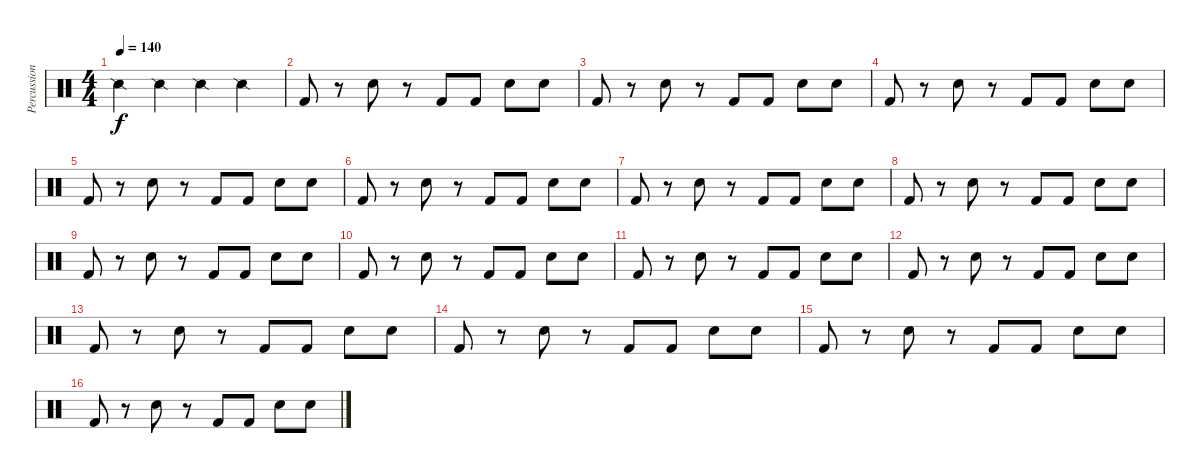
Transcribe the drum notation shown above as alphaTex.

\track ("Percussion" "Percussion") {instrument percussion}
\staff {score}
\articulation defaults
\ts (4 4)
\tempo 140
\clef neutral
\ks c "Snare (side stick) 2".4{dy f} "Snare (side stick) 2".4 "Snare (side stick) 2".4 "Snare (side stick) 2".4
|
"Kick (hit) 2".8 r.8 "Snare (hit) 2".8 r.8 "Kick (hit) 2".8 "Kick (hit) 2".8 "Snare (hit) 2".8 "Snare (hit) 2".8 |
"Kick (hit) 2".8 r.8 "Snare (hit) 2".8 r.8 "Kick (hit) 2".8 "Kick (hit) 2".8 "Snare (hit) 2".8 "Snare (hit) 2".8 |
"Kick (hit) 2".8 r.8 "Snare (hit) 2".8 r.8 "Kick (hit) 2".8 "Kick (hit) 2".8 "Snare (hit) 2".8 "Snare (hit) 2".8 |
"Kick (hit) 2".8 r.8 "Snare (hit) 2".8 r.8 "Kick (hit) 2".8 "Kick (hit) 2".8 "Snare (hit) 2".8 "Snare (hit) 2".8 |
"Kick (hit) 2".8 r.8 "Snare (hit) 2".8 r.8 "Kick (hit) 2".8 "Kick (hit) 2".8 "Snare (hit) 2".8 "Snare (hit) 2".8 |
"Kick (hit) 2".8 r.8 "Snare (hit) 2".8 r.8 "Kick (hit) 2".8 "Kick (hit) 2".8 "Snare (hit) 2".8 "Snare (hit) 2".8 |
"Kick (hit) 2".8 r.8 "Snare (hit) 2".8 r.8 "Kick (hit) 2".8 "Kick (hit) 2".8 "Snare (hit) 2".8 "Snare (hit) 2".8 |
"Kick (hit) 2".8 r.8 "Snare (hit) 2".8 r.8 "Kick (hit) 2".8 "Kick (hit) 2".8 "Snare (hit) 2".8 "Snare (hit) 2".8 |
"Kick (hit) 2".8 r.8 "Snare (hit) 2".8 r.8 "Kick (hit) 2".8 "Kick (hit) 2".8 "Snare (hit) 2".8 "Snare (hit) 2".8 |
"Kick (hit) 2".8 r.8 "Snare (hit) 2".8 r.8 "Kick (hit) 2".8 "Kick (hit) 2".8 "Snare (hit) 2".8 "Snare (hit) 2".8 |
"Kick (hit) 2".8 r.8 "Snare (hit) 2".8 r.8 "Kick (hit) 2".8 "Kick (hit) 2".8 "Snare (hit) 2".8 "Snare (hit) 2".8 |
"Kick (hit) 2".8 r.8 "Snare (hit) 2".8 r.8 "Kick (hit) 2".8 "Kick (hit) 2".8 "Snare (hit) 2".8 "Snare (hit) 2".8 |
"Kick (hit) 2".8 r.8 "Snare (hit) 2".8 r.8 "Kick (hit) 2".8 "Kick (hit) 2".8 "Snare (hit) 2".8 "Snare (hit) 2".8 |
"Kick (hit) 2".8 r.8 "Snare (hit) 2".8 r.8 "Kick (hit) 2".8 "Kick (hit) 2".8 "Snare (hit) 2".8 "Snare (hit) 2".8 |
"Kick (hit) 2".8 r.8 "Snare (hit) 2".8 r.8 "Kick (hit) 2".8 "Kick (hit) 2".8 "Snare (hit) 2".8 "Snare (hit) 2".8
